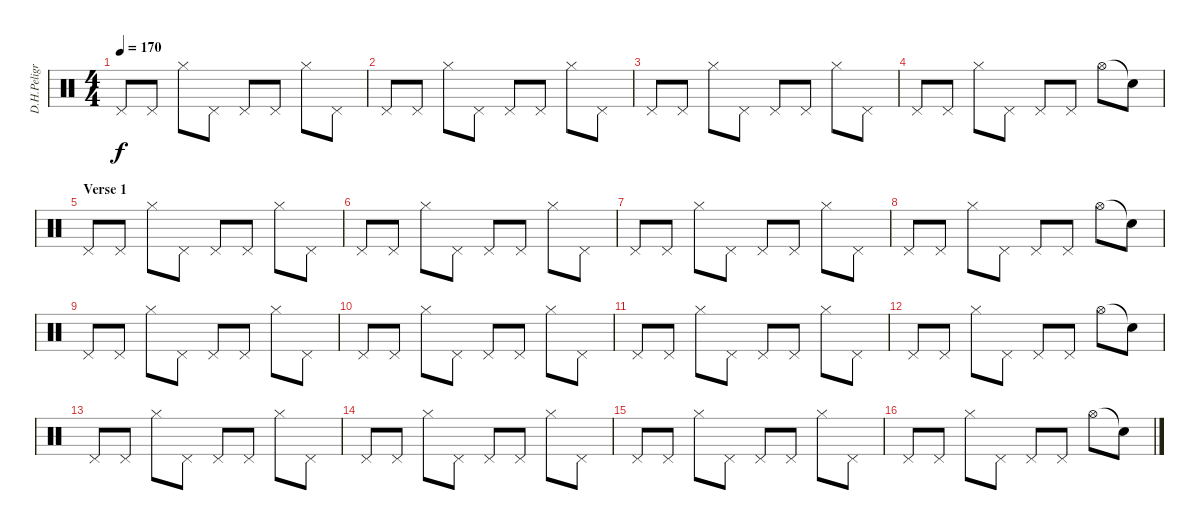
\track ("D.H.Peligro" "D.H.Peligr") {instrument percussion}
\staff {score}
\articulation defaults
\ts (4 4)
\tempo 170
\clef neutral
\ks c "Pedal Hi-Hat (hit)".8{dy f} "Pedal Hi-Hat (hit)".8 "Hi-Hat (closed)".8 "Pedal Hi-Hat (hit)".8 "Pedal Hi-Hat (hit)".8 "Pedal Hi-Hat (hit)".8 "Hi-Hat (closed)".8 "Pedal Hi-Hat (hit)".8
|
"Pedal Hi-Hat (hit)".8 "Pedal Hi-Hat (hit)".8 "Hi-Hat (closed)".8 "Pedal Hi-Hat (hit)".8 "Pedal Hi-Hat (hit)".8 "Pedal Hi-Hat (hit)".8 "Hi-Hat (closed)".8 "Pedal Hi-Hat (hit)".8 |
"Pedal Hi-Hat (hit)".8 "Pedal Hi-Hat (hit)".8 "Hi-Hat (closed)".8 "Pedal Hi-Hat (hit)".8 "Pedal Hi-Hat (hit)".8 "Pedal Hi-Hat (hit)".8 "Hi-Hat (closed)".8 "Pedal Hi-Hat (hit)".8 |
"Pedal Hi-Hat (hit)".8 "Pedal Hi-Hat (hit)".8 "Hi-Hat (closed)".8 "Pedal Hi-Hat (hit)".8 "Pedal Hi-Hat (hit)".8 "Pedal Hi-Hat (hit)".8 "Hi-Hat (open)".8 "Snare (hit)"{t}.8 |
\section ("" "Verse 1")
"Pedal Hi-Hat (hit)".8 "Pedal Hi-Hat (hit)".8 "Hi-Hat (closed)".8 "Pedal Hi-Hat (hit)".8 "Pedal Hi-Hat (hit)".8 "Pedal Hi-Hat (hit)".8 "Hi-Hat (closed)".8 "Pedal Hi-Hat (hit)".8 |
"Pedal Hi-Hat (hit)".8 "Pedal Hi-Hat (hit)".8 "Hi-Hat (closed)".8 "Pedal Hi-Hat (hit)".8 "Pedal Hi-Hat (hit)".8 "Pedal Hi-Hat (hit)".8 "Hi-Hat (closed)".8 "Pedal Hi-Hat (hit)".8 |
"Pedal Hi-Hat (hit)".8 "Pedal Hi-Hat (hit)".8 "Hi-Hat (closed)".8 "Pedal Hi-Hat (hit)".8 "Pedal Hi-Hat (hit)".8 "Pedal Hi-Hat (hit)".8 "Hi-Hat (closed)".8 "Pedal Hi-Hat (hit)".8 |
"Pedal Hi-Hat (hit)".8 "Pedal Hi-Hat (hit)".8 "Hi-Hat (closed)".8 "Pedal Hi-Hat (hit)".8 "Pedal Hi-Hat (hit)".8 "Pedal Hi-Hat (hit)".8 "Hi-Hat (open)".8 "Snare (hit)"{t}.8 |
"Pedal Hi-Hat (hit)".8 "Pedal Hi-Hat (hit)".8 "Hi-Hat (closed)".8 "Pedal Hi-Hat (hit)".8 "Pedal Hi-Hat (hit)".8 "Pedal Hi-Hat (hit)".8 "Hi-Hat (closed)".8 "Pedal Hi-Hat (hit)".8 |
"Pedal Hi-Hat (hit)".8 "Pedal Hi-Hat (hit)".8 "Hi-Hat (closed)".8 "Pedal Hi-Hat (hit)".8 "Pedal Hi-Hat (hit)".8 "Pedal Hi-Hat (hit)".8 "Hi-Hat (closed)".8 "Pedal Hi-Hat (hit)".8 |
"Pedal Hi-Hat (hit)".8 "Pedal Hi-Hat (hit)".8 "Hi-Hat (closed)".8 "Pedal Hi-Hat (hit)".8 "Pedal Hi-Hat (hit)".8 "Pedal Hi-Hat (hit)".8 "Hi-Hat (closed)".8 "Pedal Hi-Hat (hit)".8 |
"Pedal Hi-Hat (hit)".8 "Pedal Hi-Hat (hit)".8 "Hi-Hat (closed)".8 "Pedal Hi-Hat (hit)".8 "Pedal Hi-Hat (hit)".8 "Pedal Hi-Hat (hit)".8 "Hi-Hat (open)".8 "Snare (hit)"{t}.8 |
"Pedal Hi-Hat (hit)".8 "Pedal Hi-Hat (hit)".8 "Hi-Hat (closed)".8 "Pedal Hi-Hat (hit)".8 "Pedal Hi-Hat (hit)".8 "Pedal Hi-Hat (hit)".8 "Hi-Hat (closed)".8 "Pedal Hi-Hat (hit)".8 |
"Pedal Hi-Hat (hit)".8 "Pedal Hi-Hat (hit)".8 "Hi-Hat (closed)".8 "Pedal Hi-Hat (hit)".8 "Pedal Hi-Hat (hit)".8 "Pedal Hi-Hat (hit)".8 "Hi-Hat (closed)".8 "Pedal Hi-Hat (hit)".8 |
"Pedal Hi-Hat (hit)".8 "Pedal Hi-Hat (hit)".8 "Hi-Hat (closed)".8 "Pedal Hi-Hat (hit)".8 "Pedal Hi-Hat (hit)".8 "Pedal Hi-Hat (hit)".8 "Hi-Hat (closed)".8 "Pedal Hi-Hat (hit)".8 |
"Pedal Hi-Hat (hit)".8 "Pedal Hi-Hat (hit)".8 "Hi-Hat (closed)".8 "Pedal Hi-Hat (hit)".8 "Pedal Hi-Hat (hit)".8 "Pedal Hi-Hat (hit)".8 "Hi-Hat (open)".8 "Snare (hit)"{t}.8
